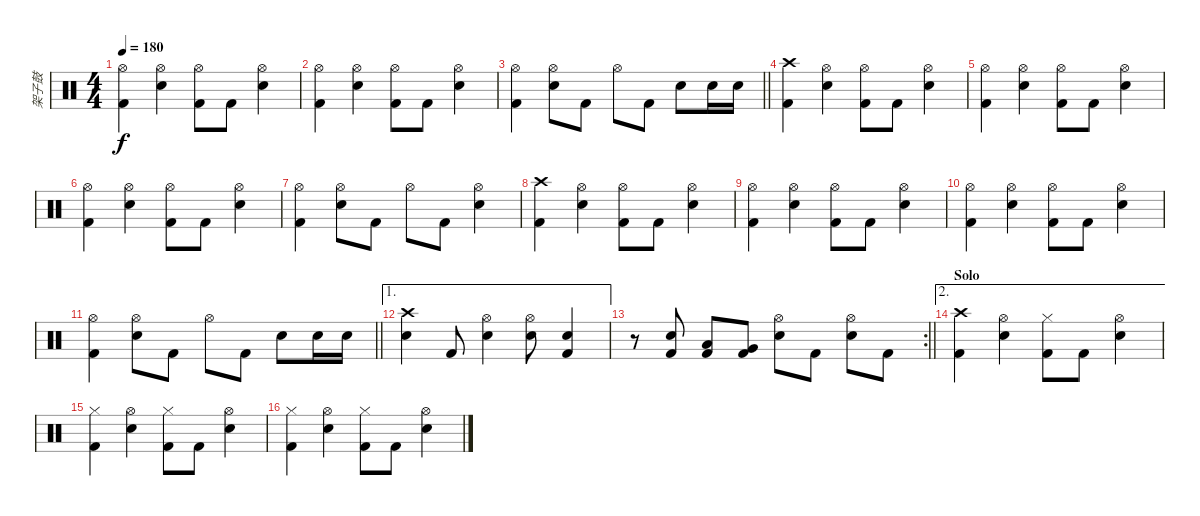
\track ("架子鼓" "架子鼓") {instrument percussion}
\staff {score}
\articulation defaults
\ts (4 4)
\tempo 180
\clef neutral
\ks c
("Hi-Hat (open)" "Kick (hit) 2").4{dy f} ("Hi-Hat (open)" "Snare (hit) 2").4 ("Hi-Hat (open)" "Kick (hit) 2").8 "Kick (hit) 2".8 ("Hi-Hat (open)" "Snare (hit) 2").4 |
("Hi-Hat (open)" "Kick (hit) 2").4 ("Hi-Hat (open)" "Snare (hit) 2").4 ("Hi-Hat (open)" "Kick (hit) 2").8 "Kick (hit) 2".8 ("Hi-Hat (open)" "Snare (hit) 2").4 |
\barLineRight lightlight
("Hi-Hat (open)" "Kick (hit) 2").4 ("Hi-Hat (open)" "Snare (hit) 2").8 "Kick (hit) 2".8 "Hi-Hat (open)".8 "Kick (hit) 2".8 "Snare (hit) 2".8 "Snare (hit) 2".16 "Snare (hit) 2".16 |
("Crash high (hit)" "Kick (hit) 2").4 ("Hi-Hat (open)" "Snare (hit) 2").4 ("Hi-Hat (open)" "Kick (hit) 2").8 "Kick (hit) 2".8 ("Hi-Hat (open)" "Snare (hit) 2").4 |
("Hi-Hat (open)" "Kick (hit) 2").4 ("Hi-Hat (open)" "Snare (hit) 2").4 ("Hi-Hat (open)" "Kick (hit) 2").8 "Kick (hit) 2".8 ("Hi-Hat (open)" "Snare (hit) 2").4 |
("Hi-Hat (open)" "Kick (hit) 2").4 ("Hi-Hat (open)" "Snare (hit) 2").4 ("Hi-Hat (open)" "Kick (hit) 2").8 "Kick (hit) 2".8 ("Hi-Hat (open)" "Snare (hit) 2").4 |
("Hi-Hat (open)" "Kick (hit) 2").4 ("Hi-Hat (open)" "Snare (hit) 2").8 "Kick (hit) 2".8 "Hi-Hat (open)".8 "Kick (hit) 2".8 ("Hi-Hat (open)" "Snare (hit) 2").4 |
("Crash high (hit)" "Kick (hit) 2").4 ("Hi-Hat (open)" "Snare (hit) 2").4 ("Hi-Hat (open)" "Kick (hit) 2").8 "Kick (hit) 2".8 ("Hi-Hat (open)" "Snare (hit) 2").4 |
("Hi-Hat (open)" "Kick (hit) 2").4 ("Hi-Hat (open)" "Snare (hit) 2").4 ("Hi-Hat (open)" "Kick (hit) 2").8 "Kick (hit) 2".8 ("Hi-Hat (open)" "Snare (hit) 2").4 |
("Hi-Hat (open)" "Kick (hit) 2").4 ("Hi-Hat (open)" "Snare (hit) 2").4 ("Hi-Hat (open)" "Kick (hit) 2").8 "Kick (hit) 2".8 ("Hi-Hat (open)" "Snare (hit) 2").4 |
\barLineRight lightlight
("Hi-Hat (open)" "Kick (hit) 2").4 ("Hi-Hat (open)" "Snare (hit) 2").8 "Kick (hit) 2".8 "Hi-Hat (open)".8 "Kick (hit) 2".8 "Snare (hit) 2".8 "Snare (hit) 2".16 "Snare (hit) 2".16 |
\ae 1
("Crash high (hit)" "Snare (hit) 2").4 "Kick (hit) 2".8 ("Hi-Hat (open)" "Snare (hit) 2").4 ("Hi-Hat (open)" "Snare (hit) 2").8 ("Snare (hit) 2" "Kick (hit) 2").4 |
\rc 2
\barLineRight lightlight
r.8 ("Snare (hit) 2" "Kick (hit) 2").8 ("Low Tom (hit)" "Kick (hit) 2").8 ("Very Low Tom (hit)" "Kick (hit) 2").8 ("Hi-Hat (open)" "Snare (hit) 2").8 "Kick (hit) 2".8 ("Hi-Hat (open)" "Snare (hit) 2").8 "Kick (hit) 2".8 |
\ae 2
\section ("" "Solo")
("Crash high (hit)" "Kick (hit) 2").4 ("Hi-Hat (open)" "Snare (hit) 2").4 ("Hi-Hat (closed)" "Kick (hit) 2").8 "Kick (hit) 2".8 ("Hi-Hat (open)" "Snare (hit) 2").4 |
("Hi-Hat (closed)" "Kick (hit) 2").4 ("Hi-Hat (open)" "Snare (hit) 2").4 ("Hi-Hat (closed)" "Kick (hit) 2").8 "Kick (hit) 2".8 ("Hi-Hat (open)" "Snare (hit) 2").4 |
("Hi-Hat (closed)" "Kick (hit) 2").4 ("Hi-Hat (open)" "Snare (hit) 2").4 ("Hi-Hat (closed)" "Kick (hit) 2").8 "Kick (hit) 2".8 ("Hi-Hat (open)" "Snare (hit) 2").4
